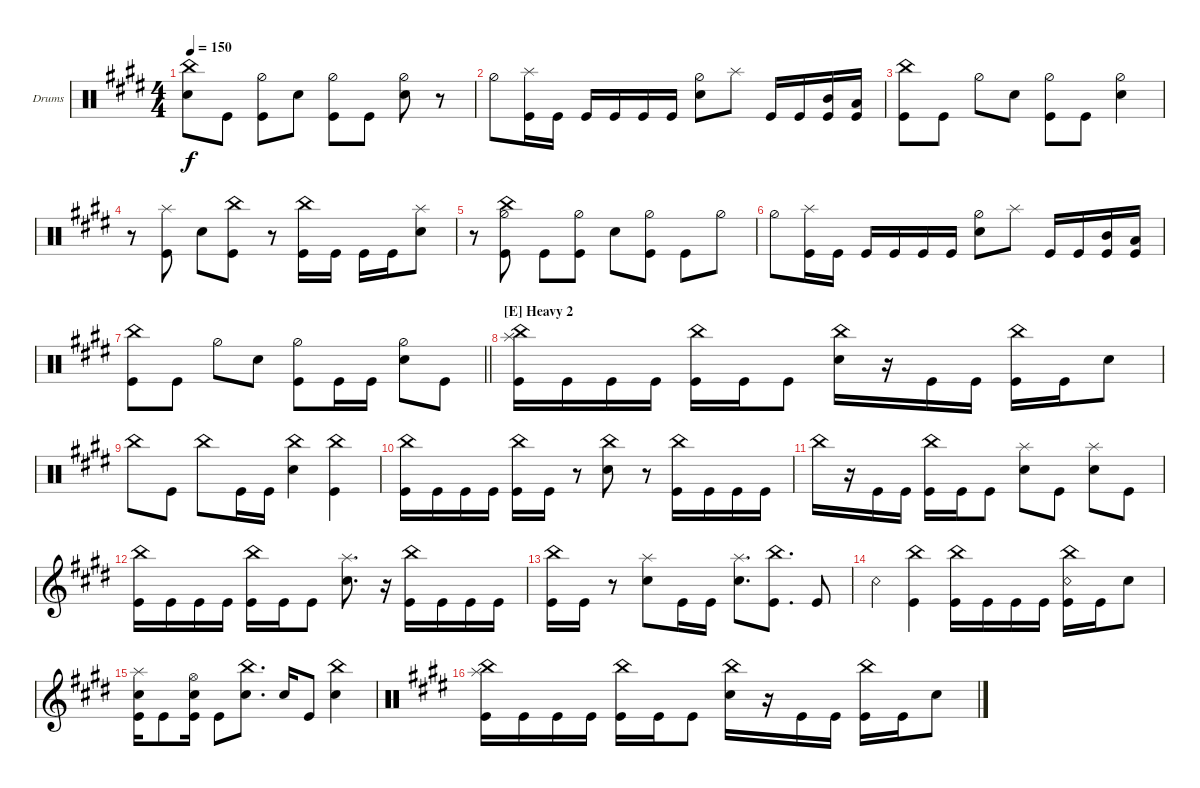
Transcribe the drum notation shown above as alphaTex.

\bracketExtendMode groupsimilarinstruments
\firstSystemTrackNameOrientation horizontal
\otherSystemsTrackNameOrientation horizontal
\track ("Drums" "Drums") {instrument percussion}
\staff {score}
\articulation defaults
\ts (4 4)
\tempo 150
\clef neutral
\scale
0.333333
\ks e
("Snare (hit) 2" "China (hit)").8{dy f} "Kick (hit)".8 ("Kick (hit)" "Hi-Hat (half)").8 "Snare (hit) 2".8 ("Kick (hit)" "Hi-Hat (half)").8 "Kick (hit)".8 ("Snare (hit) 2" "Hi-Hat (half)").8 r.8 |
\scale
0.333333 "Hi-Hat (half)".8 ("Kick (hit)" "Splash (hit)").16 "Kick (hit)".16 "Kick (hit)".16 "Kick (hit)".16 "Kick (hit)".16 "Kick (hit)".16 ("Snare (hit) 2" "Hi-Hat (half)").8 "Splash (hit)".8 "Kick (hit)".16 "Kick (hit)".16 ("Kick (hit)" "Mid Tom (hit)").16 ("Kick (hit)" "Low Tom (hit)").16 |
\scale
0.333333 ("Kick (hit)" "China (hit)").8 "Kick (hit)".8 "Hi-Hat (half)".8 "Snare (hit) 2".8 ("Kick (hit)" "Hi-Hat (half)").8 "Kick (hit)".8 ("Snare (hit) 2" "Hi-Hat (half)").4 |
\scale
0.333333 r.8 ("Kick (hit)" "Splash (hit)").8 "Snare (hit) 2".8 ("Kick (hit)" "China (hit)").8 r.8 ("Kick (hit)" "China (hit)").16 "Kick (hit)".16 "Kick (hit)".16 "Kick (hit)".16 ("Snare (hit) 2" "Splash (hit)").8 |
\scale
0.333333 r.8 ("Kick (hit)" "Hi-Hat (half)" "China (hit)").8 "Kick (hit)".8 ("Hi-Hat (half)" "Kick (hit)").8 "Snare (hit) 2".8 ("Kick (hit)" "Hi-Hat (half)").8 "Kick (hit)".8 "Hi-Hat (half)".8 |
\scale
0.311475 "Hi-Hat (half)".8 ("Kick (hit)" "Splash (hit)").16 "Kick (hit)".16 "Kick (hit)".16 "Kick (hit)".16 "Kick (hit)".16 "Kick (hit)".16 ("Snare (hit) 2" "Hi-Hat (half)").8 "Splash (hit)".8 "Kick (hit)".16 "Kick (hit)".16 ("Kick (hit)" "Mid Tom (hit)").16 ("Kick (hit)" "Low Tom (hit)").16 |
\scale
0.311475
\barLineRight lightlight
("Kick (hit)" "China (hit)").8 "Kick (hit)".8 "Hi-Hat (half)".8 "Snare (hit) 2".8 ("Kick (hit)" "Hi-Hat (half)").8 "Kick (hit)".16 "Kick (hit)".16 ("Snare (hit) 2" "Hi-Hat (half)").8 "Kick (hit)".8 |
\section ("E" "Heavy 2")
\scale
0.377049 ("Kick (hit)" "China (hit)" "Splash (hit)").16 "Kick (hit)".16 "Kick (hit)".16 "Kick (hit)".16 ("Kick (hit)" "China (hit)").16 "Kick (hit)".16 "Kick (hit)".8 ("China (hit)" "Snare (hit) 2").16 r.16 "Kick (hit)".16 "Kick (hit)".16 ("China (hit)" "Kick (hit)").16 "Kick (hit)".16 "Snare (hit) 2".8 |
\scale
0.333333 "China (hit)".8 "Kick (hit)".8 "China (hit)".8 "Kick (hit)".16 "Kick (hit)".16 ("China (hit)" "Snare (hit) 2").4 ("China (hit)" "Kick (hit)").4 |
\scale
0.333333 ("Kick (hit)" "China (hit)").16 "Kick (hit)".16 "Kick (hit)".16 "Kick (hit)".16 ("Kick (hit)" "China (hit)").16 "Kick (hit)".16 r.8 ("Snare (hit) 2" "China (hit)").8 r.8 ("Kick (hit)" "China (hit)").16 "Kick (hit)".16 "Kick (hit)".16 "Kick (hit)".16 |
\scale
0.333333 "China (hit)".16 r.16 "Kick (hit)".16 "Kick (hit)".16 ("Kick (hit)" "China (hit)").16 "Kick (hit)".16 "Kick (hit)".8 ("Snare (hit) 2" "Splash (hit)").8 "Kick (hit)".8 ("Snare (hit) 2" "Splash (hit)").8 "Kick (hit)".8 |
\clef g2
\scale
0.333333 ("Kick (hit)" "China (hit)").16 "Kick (hit)".16 "Kick (hit)".16 "Kick (hit)".16 ("Kick (hit)" "China (hit)").16 "Kick (hit)".16 "Kick (hit)".8 ("Snare (hit) 2" "Splash (hit)").8{d} r.16 ("Kick (hit)" "China (hit)").16 "Kick (hit)".16 "Kick (hit)".16 "Kick (hit)".16 |
\scale
0.333333 ("Kick (hit)" "China (hit)").16 "Kick (hit)".16 r.8 ("Snare (hit) 2" "Splash (hit)").8 "Kick (hit)".16 "Kick (hit)".16 ("Snare (hit) 2" "Splash (hit)").8{d} ("Kick (hit)" "China (hit)").8{d} "Kick (hit)".8 |
\scale
0.333333 "Snare (rim shot)".4 ("Kick (hit)" "China (hit)").4 ("Kick (hit)" "China (hit)").16 "Kick (hit)".16 "Kick (hit)".16 "Kick (hit)".16 ("Kick (hit)" "China (hit)" "Snare (rim shot)").16 "Kick (hit)".16 "Snare (hit) 2".8 |
\scale
0.333333 ("Snare (hit) 2" "Splash (hit)" "Kick (hit)").16 "Kick (hit)".8 ("Snare (hit) 2" "Hi-Hat (open)" "Kick (hit)").16 "Kick (hit)".8 ("Snare (hit) 2" "China (hit)").8{d} "Snare (hit) 2".16 "Kick (hit)".8 ("Snare (hit) 2" "China (hit)").4 |
\clef neutral
("Kick (hit)" "China (hit)" "Splash (hit)").16 "Kick (hit)".16 "Kick (hit)".16 "Kick (hit)".16 ("Kick (hit)" "China (hit)").16 "Kick (hit)".16 "Kick (hit)".8 ("China (hit)" "Snare (hit) 2").16 r.16 "Kick (hit)".16 "Kick (hit)".16 ("China (hit)" "Kick (hit)").16 "Kick (hit)".16 "Snare (hit) 2".8
